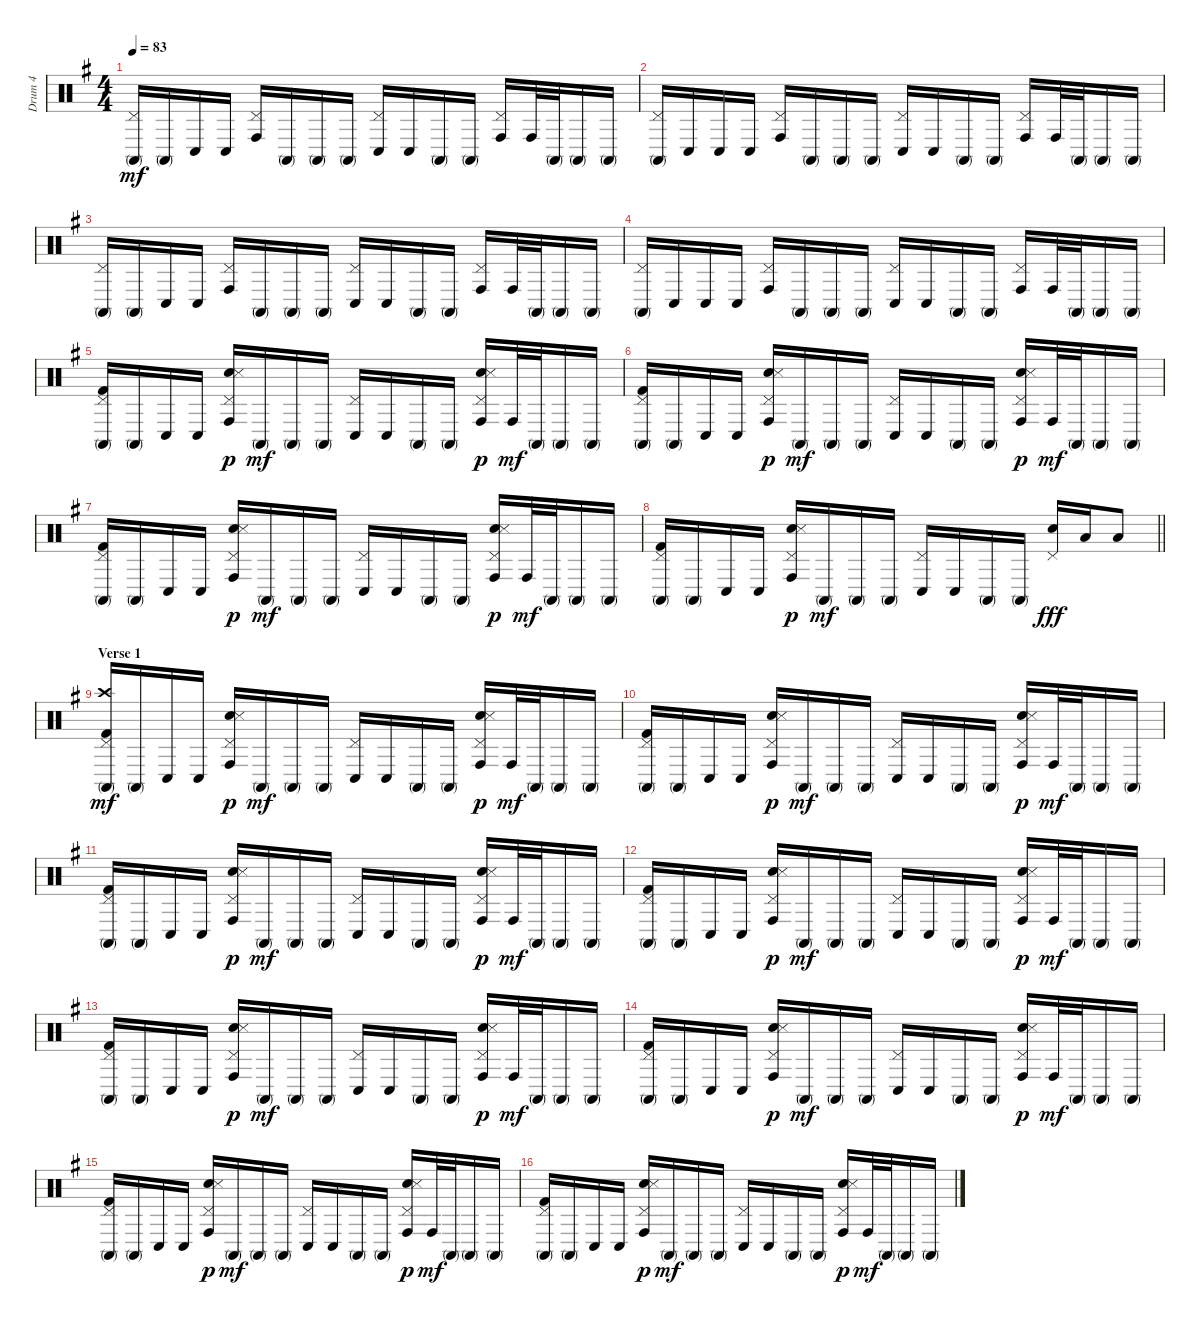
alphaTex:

\track ("Drum 4" "Drum 4") {instrument percussion}
\staff {score}
\articulation defaults
\ts (4 4)
\tempo 83
\clef neutral
\ks eminor
("Pedal Hi-Hat (hit)" "Conga high (mute)").16{dy mf} "Conga high (mute)".16 "Conga low (hit)".16 "Conga low (hit)".16 ("Pedal Hi-Hat (hit)" "Conga high (hit)").16 "Conga high (mute)".16 "Conga high (mute)".16 "Conga high (mute)".16 ("Pedal Hi-Hat (hit)" "Conga low (hit)").16 "Conga low (hit)".16 "Conga high (mute)".16 "Conga high (mute)".16 ("Pedal Hi-Hat (hit)" "Conga high (hit)").16 "Conga high (hit)".32 "Conga high (mute)".32 "Conga high (mute)".16 "Conga high (mute)".16 |
("Pedal Hi-Hat (hit)" "Conga high (mute)").16 "Conga low (hit)".16 "Conga low (hit)".16 "Conga low (hit)".16 ("Pedal Hi-Hat (hit)" "Conga high (hit)").16 "Conga high (mute)".16 "Conga high (mute)".16 "Conga high (mute)".16 ("Pedal Hi-Hat (hit)" "Conga low (hit)").16 "Conga low (hit)".16 "Conga high (mute)".16 "Conga high (mute)".16 ("Pedal Hi-Hat (hit)" "Conga high (hit)").16 "Conga high (hit)".32 "Conga high (mute)".32 "Conga high (mute)".16 "Conga high (mute)".16 |
("Pedal Hi-Hat (hit)" "Conga high (mute)").16 "Conga high (mute)".16 "Conga low (hit)".16 "Conga low (hit)".16 ("Pedal Hi-Hat (hit)" "Conga high (hit)").16 "Conga high (mute)".16 "Conga high (mute)".16 "Conga high (mute)".16 ("Pedal Hi-Hat (hit)" "Conga low (hit)").16 "Conga low (hit)".16 "Conga high (mute)".16 "Conga high (mute)".16 ("Pedal Hi-Hat (hit)" "Conga high (hit)").16 "Conga high (hit)".32 "Conga high (mute)".32 "Conga high (mute)".16 "Conga high (mute)".16 |
("Pedal Hi-Hat (hit)" "Conga high (mute)").16 "Conga low (hit)".16 "Conga low (hit)".16 "Conga low (hit)".16 ("Pedal Hi-Hat (hit)" "Conga high (hit)").16 "Conga high (mute)".16 "Conga high (mute)".16 "Conga high (mute)".16 ("Pedal Hi-Hat (hit)" "Conga low (hit)").16 "Conga low (hit)".16 "Conga high (mute)".16 "Conga high (mute)".16 ("Pedal Hi-Hat (hit)" "Conga high (hit)").16 "Conga high (hit)".32 "Conga high (mute)".32 "Conga high (mute)".16 "Conga high (mute)".16 |
("Pedal Hi-Hat (hit)" "Conga high (mute)" "Kick (hit) 2").16 "Conga high (mute)".16 "Conga low (hit)".16 "Conga low (hit)".16 ("Pedal Hi-Hat (hit)" "Conga high (hit)" "Snare (hit) 2" "Snare (side stick) 3").16{dy p} "Conga high (mute)".16{dy mf} "Conga high (mute)".16 "Conga high (mute)".16 ("Pedal Hi-Hat (hit)" "Conga low (hit)").16 "Conga low (hit)".16 "Conga high (mute)".16 "Conga high (mute)".16 ("Pedal Hi-Hat (hit)" "Conga high (hit)" "Snare (hit) 2" "Snare (side stick) 3").16{dy p} "Conga high (hit)".32{dy mf} "Conga high (mute)".32 "Conga high (mute)".16 "Conga high (mute)".16 |
("Pedal Hi-Hat (hit)" "Conga high (mute)" "Kick (hit) 2").16 "Conga high (mute)".16 "Conga low (hit)".16 "Conga low (hit)".16 ("Pedal Hi-Hat (hit)" "Conga high (hit)" "Snare (hit) 2" "Snare (side stick) 3").16{dy p} "Conga high (mute)".16{dy mf} "Conga high (mute)".16 "Conga high (mute)".16 ("Pedal Hi-Hat (hit)" "Conga low (hit)").16 "Conga low (hit)".16 "Conga high (mute)".16 "Conga high (mute)".16 ("Pedal Hi-Hat (hit)" "Conga high (hit)" "Snare (hit) 2" "Snare (side stick) 3").16{dy p} "Conga high (hit)".32{dy mf} "Conga high (mute)".32 "Conga high (mute)".16 "Conga high (mute)".16 |
("Pedal Hi-Hat (hit)" "Conga high (mute)" "Kick (hit) 2").16 "Conga high (mute)".16 "Conga low (hit)".16 "Conga low (hit)".16 ("Pedal Hi-Hat (hit)" "Conga high (hit)" "Snare (hit) 2" "Snare (side stick) 3").16{dy p} "Conga high (mute)".16{dy mf} "Conga high (mute)".16 "Conga high (mute)".16 ("Pedal Hi-Hat (hit)" "Conga low (hit)").16 "Conga low (hit)".16 "Conga high (mute)".16 "Conga high (mute)".16 ("Pedal Hi-Hat (hit)" "Conga high (hit)" "Snare (hit) 2" "Snare (side stick) 3").16{dy p} "Conga high (hit)".32{dy mf} "Conga high (mute)".32 "Conga high (mute)".16 "Conga high (mute)".16 |
\barLineRight lightlight
("Pedal Hi-Hat (hit)" "Conga high (mute)" "Kick (hit) 2").16 "Conga high (mute)".16 "Conga low (hit)".16 "Conga low (hit)".16 ("Pedal Hi-Hat (hit)" "Conga high (hit)" "Snare (hit) 2" "Snare (side stick) 3").16{dy p} "Conga high (mute)".16{dy mf} "Conga high (mute)".16 "Conga high (mute)".16 ("Pedal Hi-Hat (hit)" "Conga low (hit)").16 "Conga low (hit)".16 "Conga high (mute)".16 "Conga high (mute)".16 ("Pedal Hi-Hat (hit)" "Snare (hit) 2").16{dy fff} "Low Tom (hit)".16 "Low Tom (hit)".8 |
\section ("" "Verse 1")
("Crash high (hit)" "Pedal Hi-Hat (hit)" "Conga high (mute)" "Kick (hit) 2").16{dy mf} "Conga high (mute)".16 "Conga low (hit)".16 "Conga low (hit)".16 ("Pedal Hi-Hat (hit)" "Conga high (hit)" "Snare (hit) 2" "Snare (side stick) 3").16{dy p} "Conga high (mute)".16{dy mf} "Conga high (mute)".16 "Conga high (mute)".16 ("Pedal Hi-Hat (hit)" "Conga low (hit)").16 "Conga low (hit)".16 "Conga high (mute)".16 "Conga high (mute)".16 ("Pedal Hi-Hat (hit)" "Conga high (hit)" "Snare (hit) 2" "Snare (side stick) 3").16{dy p} "Conga high (hit)".32{dy mf} "Conga high (mute)".32 "Conga high (mute)".16 "Conga high (mute)".16 |
("Pedal Hi-Hat (hit)" "Conga high (mute)" "Kick (hit) 2").16 "Conga high (mute)".16 "Conga low (hit)".16 "Conga low (hit)".16 ("Pedal Hi-Hat (hit)" "Conga high (hit)" "Snare (hit) 2" "Snare (side stick) 3").16{dy p} "Conga high (mute)".16{dy mf} "Conga high (mute)".16 "Conga high (mute)".16 ("Pedal Hi-Hat (hit)" "Conga low (hit)").16 "Conga low (hit)".16 "Conga high (mute)".16 "Conga high (mute)".16 ("Pedal Hi-Hat (hit)" "Conga high (hit)" "Snare (hit) 2" "Snare (side stick) 3").16{dy p} "Conga high (hit)".32{dy mf} "Conga high (mute)".32 "Conga high (mute)".16 "Conga high (mute)".16 |
("Pedal Hi-Hat (hit)" "Conga high (mute)" "Kick (hit) 2").16 "Conga high (mute)".16 "Conga low (hit)".16 "Conga low (hit)".16 ("Pedal Hi-Hat (hit)" "Conga high (hit)" "Snare (hit) 2" "Snare (side stick) 3").16{dy p} "Conga high (mute)".16{dy mf} "Conga high (mute)".16 "Conga high (mute)".16 ("Pedal Hi-Hat (hit)" "Conga low (hit)").16 "Conga low (hit)".16 "Conga high (mute)".16 "Conga high (mute)".16 ("Pedal Hi-Hat (hit)" "Conga high (hit)" "Snare (hit) 2" "Snare (side stick) 3").16{dy p} "Conga high (hit)".32{dy mf} "Conga high (mute)".32 "Conga high (mute)".16 "Conga high (mute)".16 |
("Pedal Hi-Hat (hit)" "Conga high (mute)" "Kick (hit) 2").16 "Conga high (mute)".16 "Conga low (hit)".16 "Conga low (hit)".16 ("Pedal Hi-Hat (hit)" "Conga high (hit)" "Snare (hit) 2" "Snare (side stick) 3").16{dy p} "Conga high (mute)".16{dy mf} "Conga high (mute)".16 "Conga high (mute)".16 ("Pedal Hi-Hat (hit)" "Conga low (hit)").16 "Conga low (hit)".16 "Conga high (mute)".16 "Conga high (mute)".16 ("Pedal Hi-Hat (hit)" "Conga high (hit)" "Snare (hit) 2" "Snare (side stick) 3").16{dy p} "Conga high (hit)".32{dy mf} "Conga high (mute)".32 "Conga high (mute)".16 "Conga high (mute)".16 |
("Pedal Hi-Hat (hit)" "Conga high (mute)" "Kick (hit) 2").16 "Conga high (mute)".16 "Conga low (hit)".16 "Conga low (hit)".16 ("Pedal Hi-Hat (hit)" "Conga high (hit)" "Snare (hit) 2" "Snare (side stick) 3").16{dy p} "Conga high (mute)".16{dy mf} "Conga high (mute)".16 "Conga high (mute)".16 ("Pedal Hi-Hat (hit)" "Conga low (hit)").16 "Conga low (hit)".16 "Conga high (mute)".16 "Conga high (mute)".16 ("Pedal Hi-Hat (hit)" "Conga high (hit)" "Snare (hit) 2" "Snare (side stick) 3").16{dy p} "Conga high (hit)".32{dy mf} "Conga high (mute)".32 "Conga high (mute)".16 "Conga high (mute)".16 |
("Pedal Hi-Hat (hit)" "Conga high (mute)" "Kick (hit) 2").16 "Conga high (mute)".16 "Conga low (hit)".16 "Conga low (hit)".16 ("Pedal Hi-Hat (hit)" "Conga high (hit)" "Snare (hit) 2" "Snare (side stick) 3").16{dy p} "Conga high (mute)".16{dy mf} "Conga high (mute)".16 "Conga high (mute)".16 ("Pedal Hi-Hat (hit)" "Conga low (hit)").16 "Conga low (hit)".16 "Conga high (mute)".16 "Conga high (mute)".16 ("Pedal Hi-Hat (hit)" "Conga high (hit)" "Snare (hit) 2" "Snare (side stick) 3").16{dy p} "Conga high (hit)".32{dy mf} "Conga high (mute)".32 "Conga high (mute)".16 "Conga high (mute)".16 |
("Pedal Hi-Hat (hit)" "Conga high (mute)" "Kick (hit) 2").16 "Conga high (mute)".16 "Conga low (hit)".16 "Conga low (hit)".16 ("Pedal Hi-Hat (hit)" "Conga high (hit)" "Snare (hit) 2" "Snare (side stick) 3").16{dy p} "Conga high (mute)".16{dy mf} "Conga high (mute)".16 "Conga high (mute)".16 ("Pedal Hi-Hat (hit)" "Conga low (hit)").16 "Conga low (hit)".16 "Conga high (mute)".16 "Conga high (mute)".16 ("Pedal Hi-Hat (hit)" "Conga high (hit)" "Snare (hit) 2" "Snare (side stick) 3").16{dy p} "Conga high (hit)".32{dy mf} "Conga high (mute)".32 "Conga high (mute)".16 "Conga high (mute)".16 |
("Pedal Hi-Hat (hit)" "Conga high (mute)" "Kick (hit) 2").16 "Conga high (mute)".16 "Conga low (hit)".16 "Conga low (hit)".16 ("Pedal Hi-Hat (hit)" "Conga high (hit)" "Snare (hit) 2" "Snare (side stick) 3").16{dy p} "Conga high (mute)".16{dy mf} "Conga high (mute)".16 "Conga high (mute)".16 ("Pedal Hi-Hat (hit)" "Conga low (hit)").16 "Conga low (hit)".16 "Conga high (mute)".16 "Conga high (mute)".16 ("Pedal Hi-Hat (hit)" "Conga high (hit)" "Snare (hit) 2" "Snare (side stick) 3").16{dy p} "Conga high (hit)".32{dy mf} "Conga high (mute)".32 "Conga high (mute)".16 "Conga high (mute)".16
